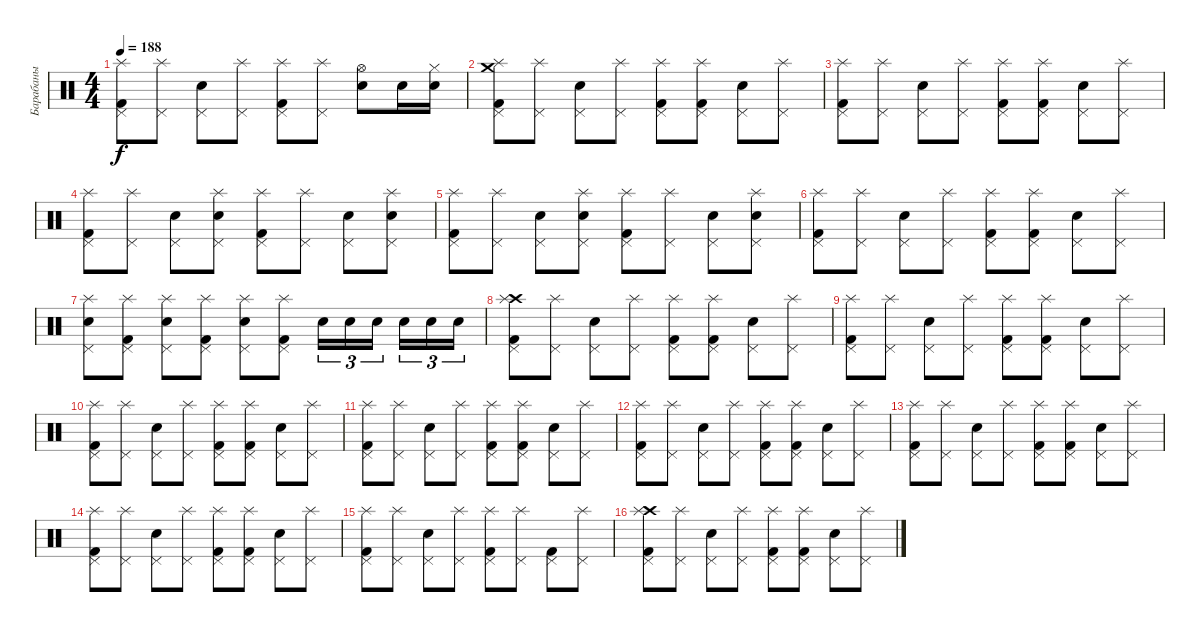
\track ("Барабаны" "Барабаны") {instrument percussion}
\staff {score}
\articulation defaults
\ts (4 4)
\tempo 188
\clef neutral
\ks c
("Splash (hit)" "Pedal Hi-Hat (hit)" "Kick (hit) 2").8{dy f} ("Splash (hit)" "Pedal Hi-Hat (hit)").8 ("Electric Snare (hit)" "Pedal Hi-Hat (hit)").8 ("Splash (hit)" "Pedal Hi-Hat (hit)").8 ("Splash (hit)" "Pedal Hi-Hat (hit)" "Kick (hit) 2").8 ("Splash (hit)" "Pedal Hi-Hat (hit)").8 ("Hi-Hat (open)" "Electric Snare (hit)").8 "Electric Snare (hit)".16 ("Hi-Hat (closed)" "Electric Snare (hit)").16 |
("Splash (hit)" "Crash medium (hit)" "Pedal Hi-Hat (hit)" "Kick (hit) 2").8 ("Splash (hit)" "Pedal Hi-Hat (hit)").8 ("Pedal Hi-Hat (hit)" "Electric Snare (hit)").8 ("Splash (hit)" "Pedal Hi-Hat (hit)").8 ("Splash (hit)" "Pedal Hi-Hat (hit)" "Kick (hit) 2").8 ("Splash (hit)" "Pedal Hi-Hat (hit)" "Kick (hit) 2").8 ("Pedal Hi-Hat (hit)" "Electric Snare (hit)").8 ("Splash (hit)" "Pedal Hi-Hat (hit)").8 |
("Splash (hit)" "Pedal Hi-Hat (hit)" "Kick (hit) 2").8 ("Splash (hit)" "Pedal Hi-Hat (hit)").8 ("Pedal Hi-Hat (hit)" "Electric Snare (hit)").8 ("Splash (hit)" "Pedal Hi-Hat (hit)").8 ("Splash (hit)" "Pedal Hi-Hat (hit)" "Kick (hit) 2").8 ("Splash (hit)" "Pedal Hi-Hat (hit)" "Kick (hit) 2").8 ("Pedal Hi-Hat (hit)" "Electric Snare (hit)").8 ("Splash (hit)" "Pedal Hi-Hat (hit)").8 |
("Pedal Hi-Hat (hit)" "Kick (hit) 2" "Splash (hit)").8 ("Pedal Hi-Hat (hit)" "Splash (hit)").8 ("Pedal Hi-Hat (hit)" "Electric Snare (hit)").8 ("Electric Snare (hit)" "Pedal Hi-Hat (hit)" "Splash (hit)").8 ("Pedal Hi-Hat (hit)" "Kick (hit) 2" "Splash (hit)").8 ("Pedal Hi-Hat (hit)" "Splash (hit)").8 ("Pedal Hi-Hat (hit)" "Electric Snare (hit)").8 ("Electric Snare (hit)" "Pedal Hi-Hat (hit)" "Splash (hit)").8 |
("Pedal Hi-Hat (hit)" "Kick (hit) 2" "Splash (hit)").8 ("Pedal Hi-Hat (hit)" "Splash (hit)").8 ("Pedal Hi-Hat (hit)" "Electric Snare (hit)").8 ("Electric Snare (hit)" "Pedal Hi-Hat (hit)" "Splash (hit)").8 ("Pedal Hi-Hat (hit)" "Kick (hit) 2" "Splash (hit)").8 ("Pedal Hi-Hat (hit)" "Splash (hit)").8 ("Pedal Hi-Hat (hit)" "Electric Snare (hit)").8 ("Electric Snare (hit)" "Pedal Hi-Hat (hit)" "Splash (hit)").8 |
("Pedal Hi-Hat (hit)" "Kick (hit) 2" "Splash (hit)").8 ("Pedal Hi-Hat (hit)" "Splash (hit)").8 ("Pedal Hi-Hat (hit)" "Electric Snare (hit)").8 ("Pedal Hi-Hat (hit)" "Splash (hit)").8 ("Pedal Hi-Hat (hit)" "Kick (hit) 2" "Splash (hit)").8 ("Pedal Hi-Hat (hit)" "Kick (hit) 2" "Splash (hit)").8 ("Pedal Hi-Hat (hit)" "Electric Snare (hit)").8 ("Pedal Hi-Hat (hit)" "Splash (hit)").8 |
("Pedal Hi-Hat (hit)" "Electric Snare (hit)" "Splash (hit)").8 ("Pedal Hi-Hat (hit)" "Kick (hit) 2" "Splash (hit)").8 ("Pedal Hi-Hat (hit)" "Electric Snare (hit)" "Splash (hit)").8 ("Pedal Hi-Hat (hit)" "Kick (hit) 2" "Splash (hit)").8 ("Pedal Hi-Hat (hit)" "Electric Snare (hit)" "Splash (hit)").8 ("Pedal Hi-Hat (hit)" "Kick (hit) 2" "Splash (hit)").8 "Electric Snare (hit)".16{tu (3 2)} "Electric Snare (hit)".16{tu (3 2)} "Electric Snare (hit)".16{tu (3 2) beam splitsecondary} "Electric Snare (hit)".16{tu (3 2)} "Electric Snare (hit)".16{tu (3 2)} "Electric Snare (hit)".16{tu (3 2)} |
("Pedal Hi-Hat (hit)" "Kick (hit) 2" "Crash high (hit)" "Splash (hit)").8 ("Pedal Hi-Hat (hit)" "Splash (hit)").8 ("Pedal Hi-Hat (hit)" "Electric Snare (hit)").8 ("Pedal Hi-Hat (hit)" "Splash (hit)").8 ("Pedal Hi-Hat (hit)" "Kick (hit) 2" "Splash (hit)").8 ("Pedal Hi-Hat (hit)" "Kick (hit) 2" "Splash (hit)").8 ("Pedal Hi-Hat (hit)" "Electric Snare (hit)").8 ("Pedal Hi-Hat (hit)" "Splash (hit)").8 |
("Pedal Hi-Hat (hit)" "Kick (hit) 2" "Splash (hit)").8 ("Pedal Hi-Hat (hit)" "Splash (hit)").8 ("Pedal Hi-Hat (hit)" "Electric Snare (hit)").8 ("Pedal Hi-Hat (hit)" "Splash (hit)").8 ("Pedal Hi-Hat (hit)" "Kick (hit) 2" "Splash (hit)").8 ("Pedal Hi-Hat (hit)" "Kick (hit) 2" "Splash (hit)").8 ("Pedal Hi-Hat (hit)" "Electric Snare (hit)").8 ("Pedal Hi-Hat (hit)" "Splash (hit)").8 |
("Pedal Hi-Hat (hit)" "Kick (hit) 2" "Splash (hit)").8 ("Pedal Hi-Hat (hit)" "Splash (hit)").8 ("Pedal Hi-Hat (hit)" "Electric Snare (hit)").8 ("Pedal Hi-Hat (hit)" "Splash (hit)").8 ("Pedal Hi-Hat (hit)" "Kick (hit) 2" "Splash (hit)").8 ("Pedal Hi-Hat (hit)" "Kick (hit) 2" "Splash (hit)").8 ("Pedal Hi-Hat (hit)" "Electric Snare (hit)").8 ("Pedal Hi-Hat (hit)" "Splash (hit)").8 |
("Pedal Hi-Hat (hit)" "Kick (hit) 2" "Splash (hit)").8 ("Pedal Hi-Hat (hit)" "Splash (hit)").8 ("Pedal Hi-Hat (hit)" "Electric Snare (hit)").8 ("Pedal Hi-Hat (hit)" "Splash (hit)").8 ("Pedal Hi-Hat (hit)" "Kick (hit) 2" "Splash (hit)").8 ("Pedal Hi-Hat (hit)" "Kick (hit) 2" "Splash (hit)").8 ("Pedal Hi-Hat (hit)" "Electric Snare (hit)").8 ("Pedal Hi-Hat (hit)" "Splash (hit)").8 |
("Pedal Hi-Hat (hit)" "Kick (hit) 2" "Splash (hit)").8 ("Pedal Hi-Hat (hit)" "Splash (hit)").8 ("Pedal Hi-Hat (hit)" "Electric Snare (hit)").8 ("Pedal Hi-Hat (hit)" "Splash (hit)").8 ("Pedal Hi-Hat (hit)" "Kick (hit) 2" "Splash (hit)").8 ("Pedal Hi-Hat (hit)" "Kick (hit) 2" "Splash (hit)").8 ("Pedal Hi-Hat (hit)" "Electric Snare (hit)").8 ("Pedal Hi-Hat (hit)" "Splash (hit)").8 |
("Pedal Hi-Hat (hit)" "Kick (hit) 2" "Splash (hit)").8 ("Pedal Hi-Hat (hit)" "Splash (hit)").8 ("Pedal Hi-Hat (hit)" "Electric Snare (hit)").8 ("Pedal Hi-Hat (hit)" "Splash (hit)").8 ("Pedal Hi-Hat (hit)" "Kick (hit) 2" "Splash (hit)").8 ("Pedal Hi-Hat (hit)" "Kick (hit) 2" "Splash (hit)").8 ("Pedal Hi-Hat (hit)" "Electric Snare (hit)").8 ("Pedal Hi-Hat (hit)" "Splash (hit)").8 |
("Pedal Hi-Hat (hit)" "Kick (hit) 2" "Splash (hit)").8 ("Pedal Hi-Hat (hit)" "Splash (hit)").8 ("Pedal Hi-Hat (hit)" "Electric Snare (hit)").8 ("Pedal Hi-Hat (hit)" "Splash (hit)").8 ("Pedal Hi-Hat (hit)" "Kick (hit) 2" "Splash (hit)").8 ("Pedal Hi-Hat (hit)" "Kick (hit) 2" "Splash (hit)").8 ("Pedal Hi-Hat (hit)" "Electric Snare (hit)").8 ("Pedal Hi-Hat (hit)" "Splash (hit)").8 |
("Pedal Hi-Hat (hit)" "Kick (hit) 2" "Splash (hit)").8 ("Pedal Hi-Hat (hit)" "Splash (hit)").8 ("Pedal Hi-Hat (hit)" "Electric Snare (hit)").8 ("Pedal Hi-Hat (hit)" "Splash (hit)").8 ("Pedal Hi-Hat (hit)" "Kick (hit) 2" "Splash (hit)").8 ("Pedal Hi-Hat (hit)" "Splash (hit)").8 ("Pedal Hi-Hat (hit)" "Kick (hit) 2").8 ("Pedal Hi-Hat (hit)" "Splash (hit)").8 |
("Crash high (hit)" "Splash (hit)" "Pedal Hi-Hat (hit)" "Kick (hit) 2").8 ("Splash (hit)" "Pedal Hi-Hat (hit)").8 ("Pedal Hi-Hat (hit)" "Electric Snare (hit)").8 ("Splash (hit)" "Pedal Hi-Hat (hit)").8 ("Splash (hit)" "Pedal Hi-Hat (hit)" "Kick (hit) 2").8 ("Splash (hit)" "Pedal Hi-Hat (hit)" "Kick (hit) 2").8 ("Pedal Hi-Hat (hit)" "Electric Snare (hit)").8 ("Splash (hit)" "Pedal Hi-Hat (hit)").8
